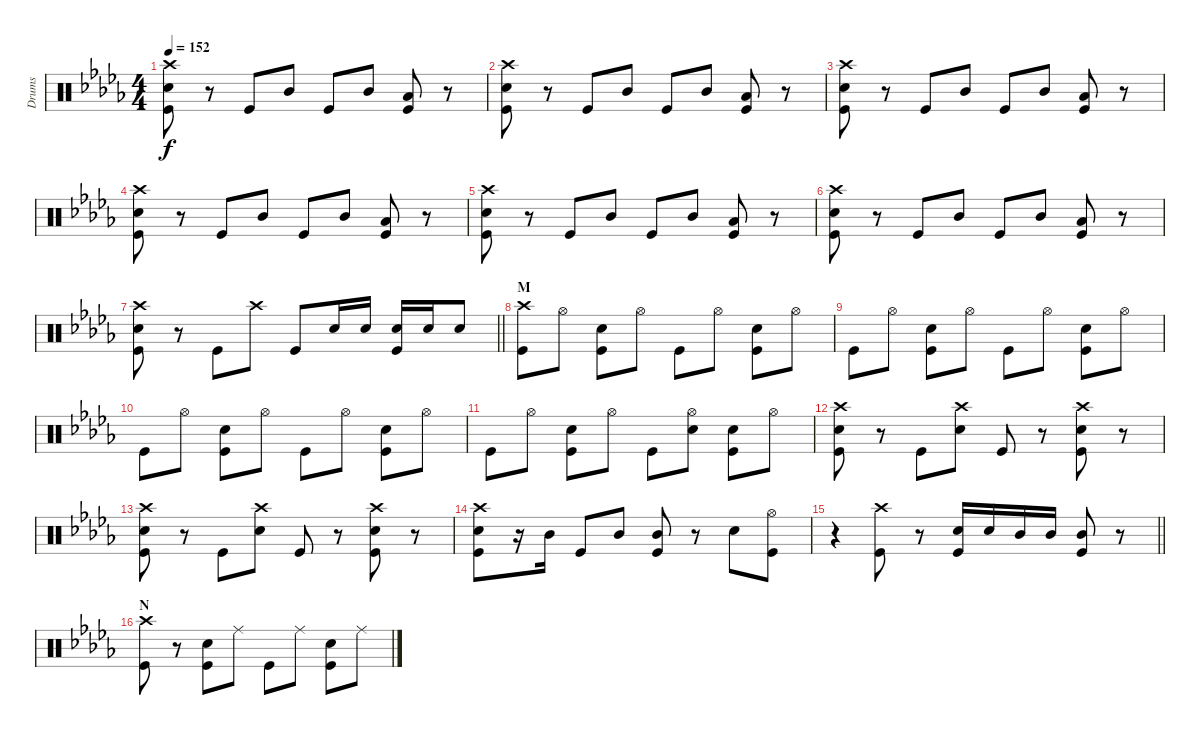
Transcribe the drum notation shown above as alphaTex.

\track ("Drums" "Drums") {instrument percussion}
\staff {score}
\articulation defaults
\ts (4 4)
\tempo 152
\clef neutral
\ks db
("Crash high (hit)" "Snare (hit) 2" "Kick (hit)").8{dy f} r.8 "Kick (hit)".8 "Mid Tom (hit)".8 "Kick (hit)".8 "Mid Tom (hit)".8 ("Low Tom (hit)" "Kick (hit)").8 r.8 |
("Crash high (hit)" "Snare (hit) 2" "Kick (hit)").8 r.8 "Kick (hit)".8 "Mid Tom (hit)".8 "Kick (hit)".8 "Mid Tom (hit)".8 ("Low Tom (hit)" "Kick (hit)").8 r.8 |
("Crash high (hit)" "Snare (hit) 2" "Kick (hit)").8 r.8 "Kick (hit)".8 "Mid Tom (hit)".8 "Kick (hit)".8 "Mid Tom (hit)".8 ("Low Tom (hit)" "Kick (hit)").8 r.8 |
("Crash high (hit)" "Snare (hit) 2" "Kick (hit)").8 r.8 "Kick (hit)".8 "Mid Tom (hit)".8 "Kick (hit)".8 "Mid Tom (hit)".8 ("Low Tom (hit)" "Kick (hit)").8 r.8 |
("Crash high (hit)" "Snare (hit) 2" "Kick (hit)").8 r.8 "Kick (hit)".8 "Mid Tom (hit)".8 "Kick (hit)".8 "Mid Tom (hit)".8 ("Low Tom (hit)" "Kick (hit)").8 r.8 |
("Crash high (hit)" "Snare (hit) 2" "Kick (hit)").8 r.8 "Kick (hit)".8 "Mid Tom (hit)".8 "Kick (hit)".8 "Mid Tom (hit)".8 ("Low Tom (hit)" "Kick (hit)").8 r.8 |
\barLineRight lightlight
("Crash high (hit)" "Snare (hit) 2" "Kick (hit)").8 r.8 "Kick (hit)".8 "Crash high (hit)".8 "Kick (hit)".8 "Snare (hit) 2".16 "Snare (hit) 2".16 ("Snare (hit) 2" "Kick (hit)").16 "Snare (hit) 2".16 "Snare (hit) 2".8 |
\section ("" "M")
("Crash high (hit)" "Kick (hit)").8 "Hi-Hat (open)".8 ("Snare (hit) 2" "Kick (hit)").8 "Hi-Hat (open)".8 "Kick (hit)".8 "Hi-Hat (open)".8 ("Snare (hit) 2" "Kick (hit)").8 "Hi-Hat (open)".8 |
"Kick (hit)".8 "Hi-Hat (open)".8 ("Snare (hit) 2" "Kick (hit)").8 "Hi-Hat (open)".8 "Kick (hit)".8 "Hi-Hat (open)".8 ("Snare (hit) 2" "Kick (hit)").8 "Hi-Hat (open)".8 |
"Kick (hit)".8 "Hi-Hat (open)".8 ("Snare (hit) 2" "Kick (hit)").8 "Hi-Hat (open)".8 "Kick (hit)".8 "Hi-Hat (open)".8 ("Snare (hit) 2" "Kick (hit)").8 "Hi-Hat (open)".8 |
"Kick (hit)".8 "Hi-Hat (open)".8 ("Snare (hit) 2" "Kick (hit)").8 "Hi-Hat (open)".8 "Kick (hit)".8 ("Hi-Hat (open)" "Snare (hit) 2").8 ("Snare (hit) 2" "Kick (hit)").8 "Hi-Hat (open)".8 |
("Crash high (hit)" "Snare (hit) 2" "Kick (hit)").8 r.8 "Kick (hit)".8 ("Crash high (hit)" "Snare (hit) 2").8 "Kick (hit)".8 r.8 ("Crash high (hit)" "Snare (hit) 2" "Kick (hit)").8 r.8 |
("Crash high (hit)" "Snare (hit) 2" "Kick (hit)").8 r.8 "Kick (hit)".8 ("Crash high (hit)" "Snare (hit) 2").8 "Kick (hit)".8 r.8 ("Crash high (hit)" "Snare (hit) 2" "Kick (hit)").8 r.8 |
("Crash high (hit)" "Snare (hit) 2" "Kick (hit)").8 r.16 "Mid Tom (hit)".16 "Kick (hit)".8 "Mid Tom (hit)".8 ("Mid Tom (hit)" "Kick (hit)").8 r.8 "Snare (hit) 2".8 ("Hi-Hat (open)" "Kick (hit)").8 |
\barLineRight lightlight
r.4 ("Crash high (hit)" "Kick (hit)").8 r.8 ("Snare (hit) 2" "Kick (hit)").16 "Snare (hit) 2".16 "Mid Tom (hit)".16 "Mid Tom (hit)".16 ("Mid Tom (hit)" "Kick (hit)").8 r.8 |
\section ("" "N")
("Crash high (hit)" "Kick (hit)").8 r.8 ("Snare (hit) 2" "Kick (hit)").8 "Ride (middle)".8 "Kick (hit)".8 "Ride (middle)".8 ("Snare (hit) 2" "Kick (hit)").8 "Ride (middle)".8
